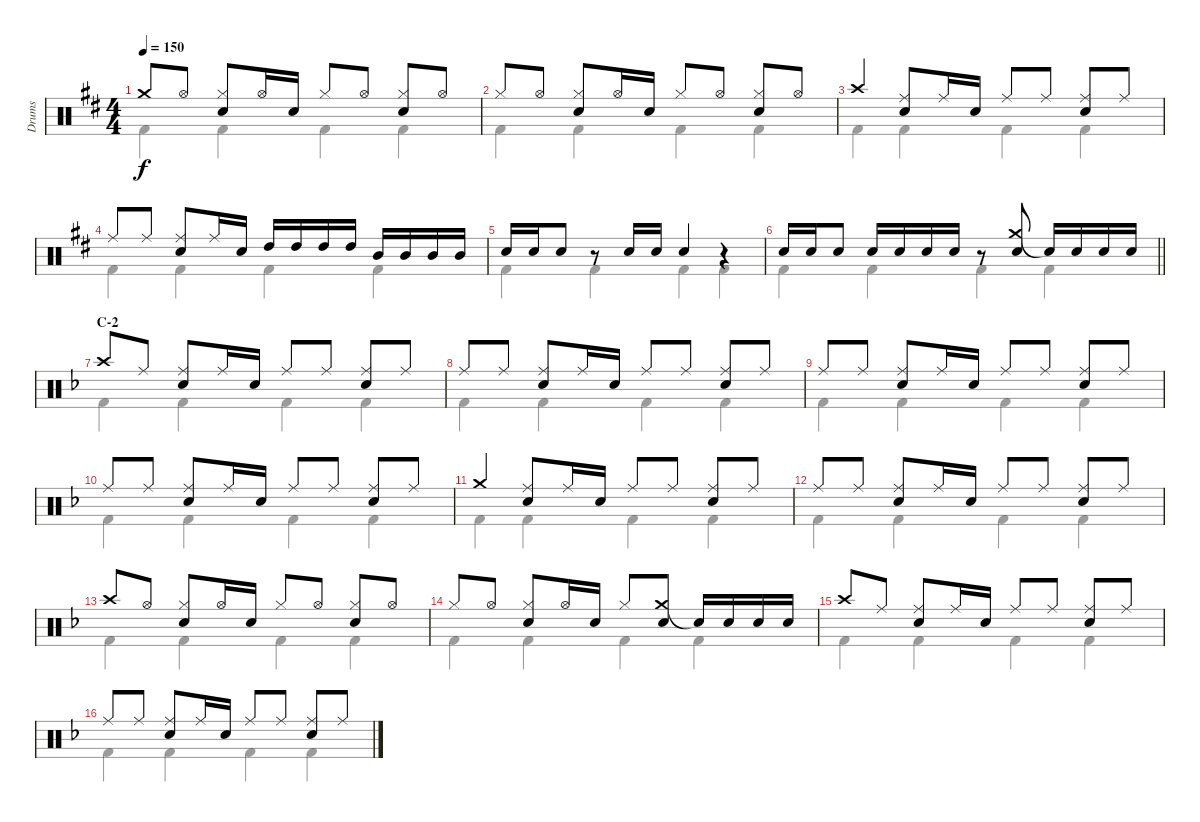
\track ("Drums" "Drums") {instrument percussion}
\staff {score}
\articulation defaults
\voice
\ts (4 4)
\tempo 150
\clef neutral
\ks d "Crash medium (hit)".8{dy f} "Hi-Hat (open)".8
("Hi-Hat (closed)" "Snare (hit) 2").8 "Hi-Hat (open)".16 "Snare (hit) 2".16 "Hi-Hat (closed)".8 "Hi-Hat (open)".8 ("Hi-Hat (closed)" "Snare (hit) 2").8 "Hi-Hat (open)".8 |
"Hi-Hat (closed)".8 "Hi-Hat (open)".8 ("Hi-Hat (closed)" "Snare (hit) 2").8 "Hi-Hat (open)".16 "Snare (hit) 2".16 "Hi-Hat (closed)".8 "Hi-Hat (open)".8 ("Hi-Hat (closed)" "Snare (hit) 2").8 "Hi-Hat (open)".8 |
"Crash high (hit)".4 ("Ride (middle)" "Snare (hit) 2").8 "Ride (middle)".16 "Snare (hit) 2".16 "Ride (middle)".8 "Ride (middle)".8 ("Ride (middle)" "Snare (hit) 2").8 "Ride (middle)".8 |
"Ride (middle)".8 "Ride (middle)".8 ("Ride (middle)" "Snare (hit) 2").8 "Ride (middle)".16 "Snare (hit) 2".16 "High Tom (hit)".16 "High Tom (hit)".16 "High Tom (hit)".16 "High Tom (hit)".16 "Mid Tom (hit)".16 "Mid Tom (hit)".16 "Mid Tom (hit)".16 "Mid Tom (hit)".16 |
"Snare (hit) 2".16 "Snare (hit) 2".16 "Snare (hit) 2".8 r.8 "Snare (hit) 2".16 "Snare (hit) 2".16 "Snare (hit) 2".4 r.4 |
\barLineRight lightlight "Snare (hit) 2".16 "Snare (hit) 2".16 "Snare (hit) 2".8 "Snare (hit) 2".16 "Snare (hit) 2".16 "Snare (hit) 2".16 "Snare (hit) 2".16
r.8 ("Crash medium (hit)" "Snare (hit) 2").8 "Snare (hit)"{t}.16 "Snare (hit) 2".16 "Snare (hit) 2".16 "Snare (hit) 2".16 |
\section ("" "C-2")
\ks f "Crash high (hit)".8 "Ride (middle)".8
("Ride (middle)" "Snare (hit) 2").8 "Ride (middle)".16 "Snare (hit) 2".16 "Ride (middle)".8 "Ride (middle)".8 ("Ride (middle)" "Snare (hit) 2").8 "Ride (middle)".8 |
"Ride (middle)".8 "Ride (middle)".8 ("Ride (middle)" "Snare (hit) 2").8 "Ride (middle)".16 "Snare (hit) 2".16 "Ride (middle)".8 "Ride (middle)".8 ("Ride (middle)" "Snare (hit) 2").8 "Ride (middle)".8 |
"Ride (middle)".8 "Ride (middle)".8 ("Ride (middle)" "Snare (hit) 2").8 "Ride (middle)".16 "Snare (hit) 2".16 "Ride (middle)".8 "Ride (middle)".8 ("Ride (middle)" "Snare (hit) 2").8 "Ride (middle)".8 |
"Ride (middle)".8 "Ride (middle)".8 ("Ride (middle)" "Snare (hit) 2").8 "Ride (middle)".16 "Snare (hit) 2".16 "Ride (middle)".8 "Ride (middle)".8 ("Ride (middle)" "Snare (hit) 2").8 "Ride (middle)".8 |
"Crash medium (hit)".4 ("Ride (middle)" "Snare (hit) 2").8 "Ride (middle)".16 "Snare (hit) 2".16 "Ride (middle)".8 "Ride (middle)".8 ("Ride (middle)" "Snare (hit) 2").8 "Ride (middle)".8 |
"Ride (middle)".8 "Ride (middle)".8 ("Ride (middle)" "Snare (hit) 2").8 "Ride (middle)".16 "Snare (hit) 2".16 "Ride (middle)".8 "Ride (middle)".8 ("Ride (middle)" "Snare (hit) 2").8 "Ride (middle)".8 |
"Crash high (hit)".8 "Hi-Hat (open)".8 ("Hi-Hat (closed)" "Snare (hit) 2").8 "Hi-Hat (open)".16 "Snare (hit) 2".16 "Hi-Hat (closed)".8 "Hi-Hat (open)".8 ("Hi-Hat (closed)" "Snare (hit) 2").8 "Hi-Hat (open)".8 |
"Hi-Hat (closed)".8 "Hi-Hat (open)".8 ("Hi-Hat (closed)" "Snare (hit) 2").8 "Hi-Hat (open)".16 "Snare (hit) 2".16 "Hi-Hat (closed)".8 ("Crash medium (hit)" "Snare (hit) 2").8 "Snare (hit)"{t}.16 "Snare (hit) 2".16 "Snare (hit) 2".16 "Snare (hit) 2".16 |
"Crash high (hit)".8 "Ride (middle)".8 ("Ride (middle)" "Snare (hit) 2").8 "Ride (middle)".16 "Snare (hit) 2".16 "Ride (middle)".8 "Ride (middle)".8 ("Ride (middle)" "Snare (hit) 2").8 "Ride (middle)".8 |
"Ride (middle)".8 "Ride (middle)".8 ("Ride (middle)" "Snare (hit) 2").8 "Ride (middle)".16 "Snare (hit) 2".16 "Ride (middle)".8 "Ride (middle)".8 ("Ride (middle)" "Snare (hit) 2").8 "Ride (middle)".8
\voice
\clef neutral
\ottava regular
\simile none
\ks d "Kick (hit) 2".4{dy f} "Kick (hit) 2".4 "Kick (hit) 2".4 "Kick (hit) 2".4
|
"Kick (hit) 2".4 "Kick (hit) 2".4 "Kick (hit) 2".4 "Kick (hit) 2".4 |
"Kick (hit) 2".4 "Kick (hit) 2".4 "Kick (hit) 2".4 "Kick (hit) 2".4 |
"Kick (hit) 2".4 "Kick (hit) 2".4 "Kick (hit) 2".4 "Kick (hit) 2".4 |
"Kick (hit) 2".4 "Kick (hit) 2".4 "Kick (hit) 2".4 "Kick (hit) 2".4 |
\barLineRight lightlight "Kick (hit) 2".4 "Kick (hit) 2".4 "Kick (hit) 2".4 "Kick (hit) 2".4
|
\ks f "Kick (hit) 2".4 "Kick (hit) 2".4 "Kick (hit) 2".4 "Kick (hit) 2".4
|
"Kick (hit) 2".4 "Kick (hit) 2".4 "Kick (hit) 2".4 "Kick (hit) 2".4 |
"Kick (hit) 2".4 "Kick (hit) 2".4 "Kick (hit) 2".4 "Kick (hit) 2".4 |
"Kick (hit) 2".4 "Kick (hit) 2".4 "Kick (hit) 2".4 "Kick (hit) 2".4 |
"Kick (hit) 2".4 "Kick (hit) 2".4 "Kick (hit) 2".4 "Kick (hit) 2".4 |
"Kick (hit) 2".4 "Kick (hit) 2".4 "Kick (hit) 2".4 "Kick (hit) 2".4 |
"Kick (hit) 2".4 "Kick (hit) 2".4 "Kick (hit) 2".4 "Kick (hit) 2".4 |
"Kick (hit) 2".4 "Kick (hit) 2".4 "Kick (hit) 2".4 "Kick (hit) 2".4 |
"Kick (hit) 2".4 "Kick (hit) 2".4 "Kick (hit) 2".4 "Kick (hit) 2".4 |
"Kick (hit) 2".4 "Kick (hit) 2".4 "Kick (hit) 2".4 "Kick (hit) 2".4
